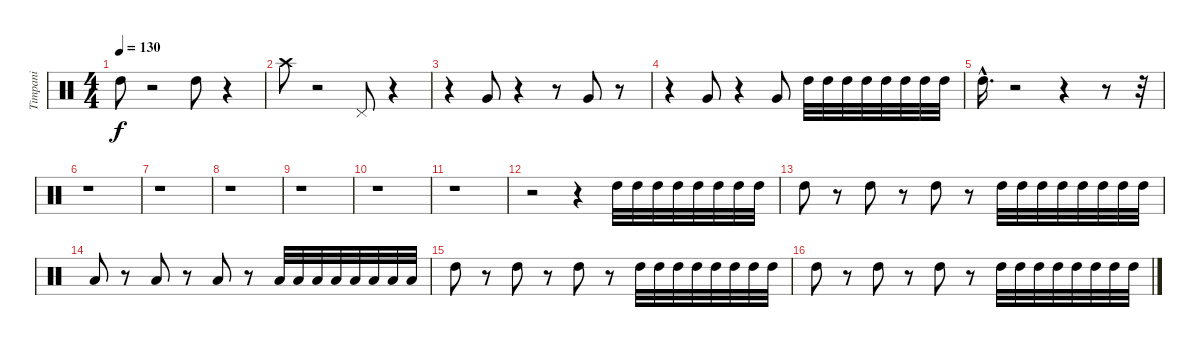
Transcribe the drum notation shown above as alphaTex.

\track ("Timpani" "Timpani") {instrument percussion}
\staff {score}
\articulation defaults
\ts (4 4)
\tempo 130
\clef neutral
\ks c "High Tom (hit)".8{dy f}
r.2 "High Tom (hit)".8 r.4 |
"Crash high (hit)".8 r.2 "Pedal Hi-Hat (hit)".8 r.4 |
r.4 "Very Low Tom (hit)".8 r.4 r.8 "Very Low Tom (hit)".8 r.8 |
r.4 "Very Low Tom (hit)".8 r.4 "Very Low Tom (hit)".8 "High Tom (hit)".32 "High Tom (hit)".32 "High Tom (hit)".32 "High Tom (hit)".32 "High Tom (hit)".32 "High Tom (hit)".32 "High Tom (hit)".32 "High Tom (hit)".32 |
"High Tom (hit)"{hac}.16{d} r.2 r.4 r.8 r.32 |
r.1 |
r.1 |
r.1 |
r.1 |
r.1 |
r.1 |
r.2 r.4 "High Tom (hit)".32 "High Tom (hit)".32 "High Tom (hit)".32 "High Tom (hit)".32 "High Tom (hit)".32 "High Tom (hit)".32 "High Tom (hit)".32 "High Tom (hit)".32 |
"High Tom (hit)".8 r.8 "High Tom (hit)".8 r.8 "High Tom (hit)".8 r.8 "High Tom (hit)".32 "High Tom (hit)".32 "High Tom (hit)".32 "High Tom (hit)".32 "High Tom (hit)".32 "High Tom (hit)".32 "High Tom (hit)".32 "High Tom (hit)".32 |
"Low Tom (hit)".8 r.8 "Low Tom (hit)".8 r.8 "Low Tom (hit)".8 r.8 "Low Tom (hit)".32 "Low Tom (hit)".32 "Low Tom (hit)".32 "Low Tom (hit)".32 "Low Tom (hit)".32 "Low Tom (hit)".32 "Low Tom (hit)".32 "Low Tom (hit)".32 |
"High Tom (hit)".8 r.8 "High Tom (hit)".8 r.8 "High Tom (hit)".8 r.8 "High Tom (hit)".32 "High Tom (hit)".32 "High Tom (hit)".32 "High Tom (hit)".32 "High Tom (hit)".32 "High Tom (hit)".32 "High Tom (hit)".32 "High Tom (hit)".32 |
"High Tom (hit)".8 r.8 "High Tom (hit)".8 r.8 "High Tom (hit)".8 r.8 "High Tom (hit)".32 "High Tom (hit)".32 "High Tom (hit)".32 "High Tom (hit)".32 "High Tom (hit)".32 "High Tom (hit)".32 "High Tom (hit)".32 "High Tom (hit)".32
